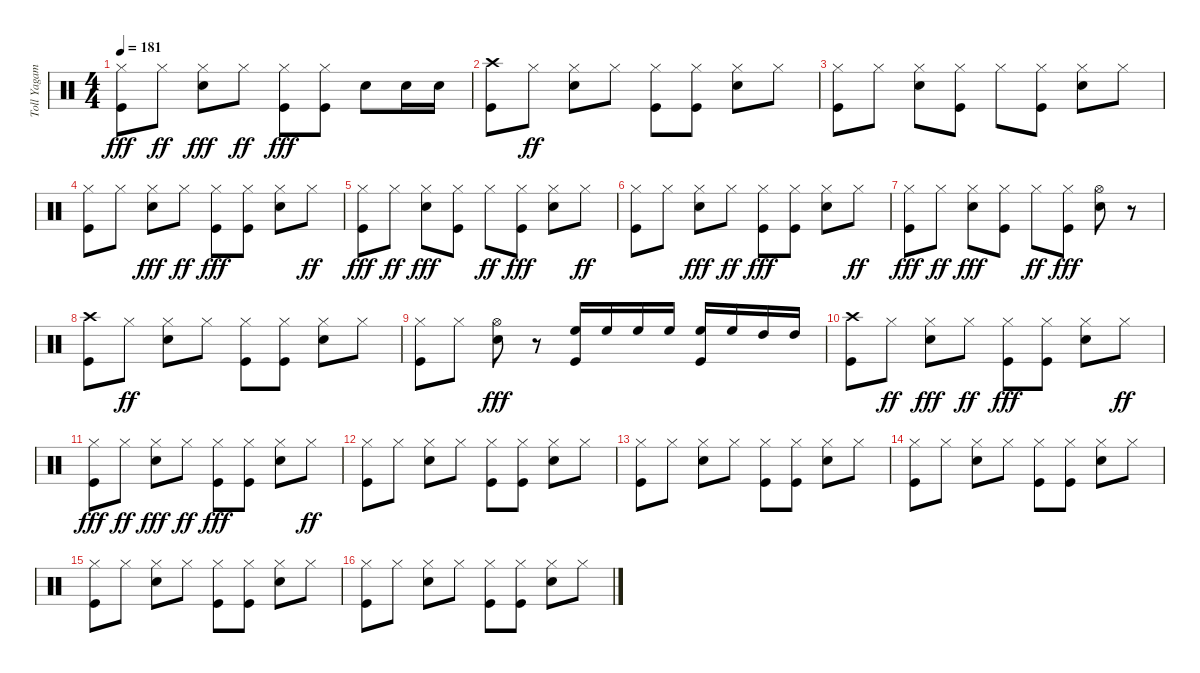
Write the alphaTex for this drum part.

\track ("Toll Yagami" "Toll Yagam") {instrument percussion}
\staff {score}
\articulation defaults
\ts (4 4)
\tempo 181
\clef neutral
\ks c
("Hi-Hat (closed)" "Kick (hit)").8{dy fff} "Hi-Hat (closed)".8{dy ff} ("Hi-Hat (closed)" "Snare (hit) 2").8{dy fff} "Hi-Hat (closed)".8{dy ff} ("Hi-Hat (closed)" "Kick (hit)").8{dy fff} ("Hi-Hat (closed)" "Kick (hit)").8 "Snare (hit) 2".8 "Snare (hit) 2".16 "Snare (hit) 2".16 |
("Kick (hit)" "Crash high (hit)").8 "Hi-Hat (closed)".8{dy ff} ("Snare (hit) 2" "Hi-Hat (closed)").8 "Hi-Hat (closed)".8 ("Kick (hit)" "Hi-Hat (closed)").8 ("Kick (hit)" "Hi-Hat (closed)").8 ("Snare (hit) 2" "Hi-Hat (closed)").8 "Hi-Hat (closed)".8 |
("Kick (hit)" "Hi-Hat (closed)").8 "Hi-Hat (closed)".8 ("Snare (hit) 2" "Hi-Hat (closed)").8 ("Kick (hit)" "Hi-Hat (closed)").8 "Hi-Hat (closed)".8 ("Kick (hit)" "Hi-Hat (closed)").8 ("Snare (hit) 2" "Hi-Hat (closed)").8 "Hi-Hat (closed)".8 |
("Kick (hit)" "Hi-Hat (closed)").8 "Hi-Hat (closed)".8 ("Hi-Hat (closed)" "Snare (hit) 2").8{dy fff} "Hi-Hat (closed)".8{dy ff} ("Hi-Hat (closed)" "Kick (hit)").8{dy fff} ("Hi-Hat (closed)" "Kick (hit)").8 ("Hi-Hat (closed)" "Snare (hit) 2").8 "Hi-Hat (closed)".8{dy ff} |
("Hi-Hat (closed)" "Kick (hit)").8{dy fff} "Hi-Hat (closed)".8{dy ff} ("Hi-Hat (closed)" "Snare (hit) 2").8{dy fff} ("Hi-Hat (closed)" "Kick (hit)").8 "Hi-Hat (closed)".8{dy ff} ("Hi-Hat (closed)" "Kick (hit)").8{dy fff} ("Hi-Hat (closed)" "Snare (hit) 2").8 "Hi-Hat (closed)".8{dy ff} |
("Kick (hit)" "Hi-Hat (closed)").8 "Hi-Hat (closed)".8 ("Hi-Hat (closed)" "Snare (hit) 2").8{dy fff} "Hi-Hat (closed)".8{dy ff} ("Hi-Hat (closed)" "Kick (hit)").8{dy fff} ("Hi-Hat (closed)" "Kick (hit)").8 ("Hi-Hat (closed)" "Snare (hit) 2").8 "Hi-Hat (closed)".8{dy ff} |
("Hi-Hat (closed)" "Kick (hit)").8{dy fff} "Hi-Hat (closed)".8{dy ff} ("Hi-Hat (closed)" "Snare (hit) 2").8{dy fff} ("Hi-Hat (closed)" "Kick (hit)").8 "Hi-Hat (closed)".8{dy ff} ("Hi-Hat (closed)" "Kick (hit)").8{dy fff} ("Snare (hit) 2" "Hi-Hat (open)").8 r.8 |
("Kick (hit)" "Crash high (hit)").8 "Hi-Hat (closed)".8{dy ff} ("Snare (hit) 2" "Hi-Hat (closed)").8 "Hi-Hat (closed)".8 ("Kick (hit)" "Hi-Hat (closed)").8 ("Kick (hit)" "Hi-Hat (closed)").8 ("Snare (hit) 2" "Hi-Hat (closed)").8 "Hi-Hat (closed)".8 |
("Kick (hit)" "Hi-Hat (closed)").8 "Hi-Hat (closed)".8 ("Snare (hit) 2" "Hi-Hat (open)").8{dy fff} r.8 ("Kick (hit)" "High Floor Tom (hit)").16 "High Floor Tom (hit)".16 "High Floor Tom (hit)".16 "High Floor Tom (hit)".16 ("Kick (hit)" "High Floor Tom (hit)").16 "High Floor Tom (hit)".16 "High Tom (hit)".16 "High Tom (hit)".16 |
("Crash high (hit)" "Kick (hit)").8 "Hi-Hat (closed)".8{dy ff} ("Hi-Hat (closed)" "Snare (hit) 2").8{dy fff} "Hi-Hat (closed)".8{dy ff} ("Hi-Hat (closed)" "Kick (hit)").8{dy fff} ("Hi-Hat (closed)" "Kick (hit)").8 ("Hi-Hat (closed)" "Snare (hit) 2").8 "Hi-Hat (closed)".8{dy ff} |
("Hi-Hat (closed)" "Kick (hit)").8{dy fff} "Hi-Hat (closed)".8{dy ff} ("Hi-Hat (closed)" "Snare (hit) 2").8{dy fff} "Hi-Hat (closed)".8{dy ff} ("Hi-Hat (closed)" "Kick (hit)").8{dy fff} ("Hi-Hat (closed)" "Kick (hit)").8 ("Hi-Hat (closed)" "Snare (hit) 2").8 "Hi-Hat (closed)".8{dy ff} |
("Kick (hit)" "Hi-Hat (closed)").8 "Hi-Hat (closed)".8 ("Snare (hit) 2" "Hi-Hat (closed)").8 "Hi-Hat (closed)".8 ("Kick (hit)" "Hi-Hat (closed)").8 ("Kick (hit)" "Hi-Hat (closed)").8 ("Snare (hit) 2" "Hi-Hat (closed)").8 "Hi-Hat (closed)".8 |
("Kick (hit)" "Hi-Hat (closed)").8 "Hi-Hat (closed)".8 ("Snare (hit) 2" "Hi-Hat (closed)").8 "Hi-Hat (closed)".8 ("Kick (hit)" "Hi-Hat (closed)").8 ("Kick (hit)" "Hi-Hat (closed)").8 ("Snare (hit) 2" "Hi-Hat (closed)").8 "Hi-Hat (closed)".8 |
("Kick (hit)" "Hi-Hat (closed)").8 "Hi-Hat (closed)".8 ("Snare (hit) 2" "Hi-Hat (closed)").8 "Hi-Hat (closed)".8 ("Kick (hit)" "Hi-Hat (closed)").8 ("Kick (hit)" "Hi-Hat (closed)").8 ("Snare (hit) 2" "Hi-Hat (closed)").8 "Hi-Hat (closed)".8 |
("Kick (hit)" "Hi-Hat (closed)").8 "Hi-Hat (closed)".8 ("Snare (hit) 2" "Hi-Hat (closed)").8 "Hi-Hat (closed)".8 ("Kick (hit)" "Hi-Hat (closed)").8 ("Kick (hit)" "Hi-Hat (closed)").8 ("Snare (hit) 2" "Hi-Hat (closed)").8 "Hi-Hat (closed)".8 |
("Kick (hit)" "Hi-Hat (closed)").8 "Hi-Hat (closed)".8 ("Snare (hit) 2" "Hi-Hat (closed)").8 "Hi-Hat (closed)".8 ("Kick (hit)" "Hi-Hat (closed)").8 ("Kick (hit)" "Hi-Hat (closed)").8 ("Snare (hit) 2" "Hi-Hat (closed)").8 "Hi-Hat (closed)".8
